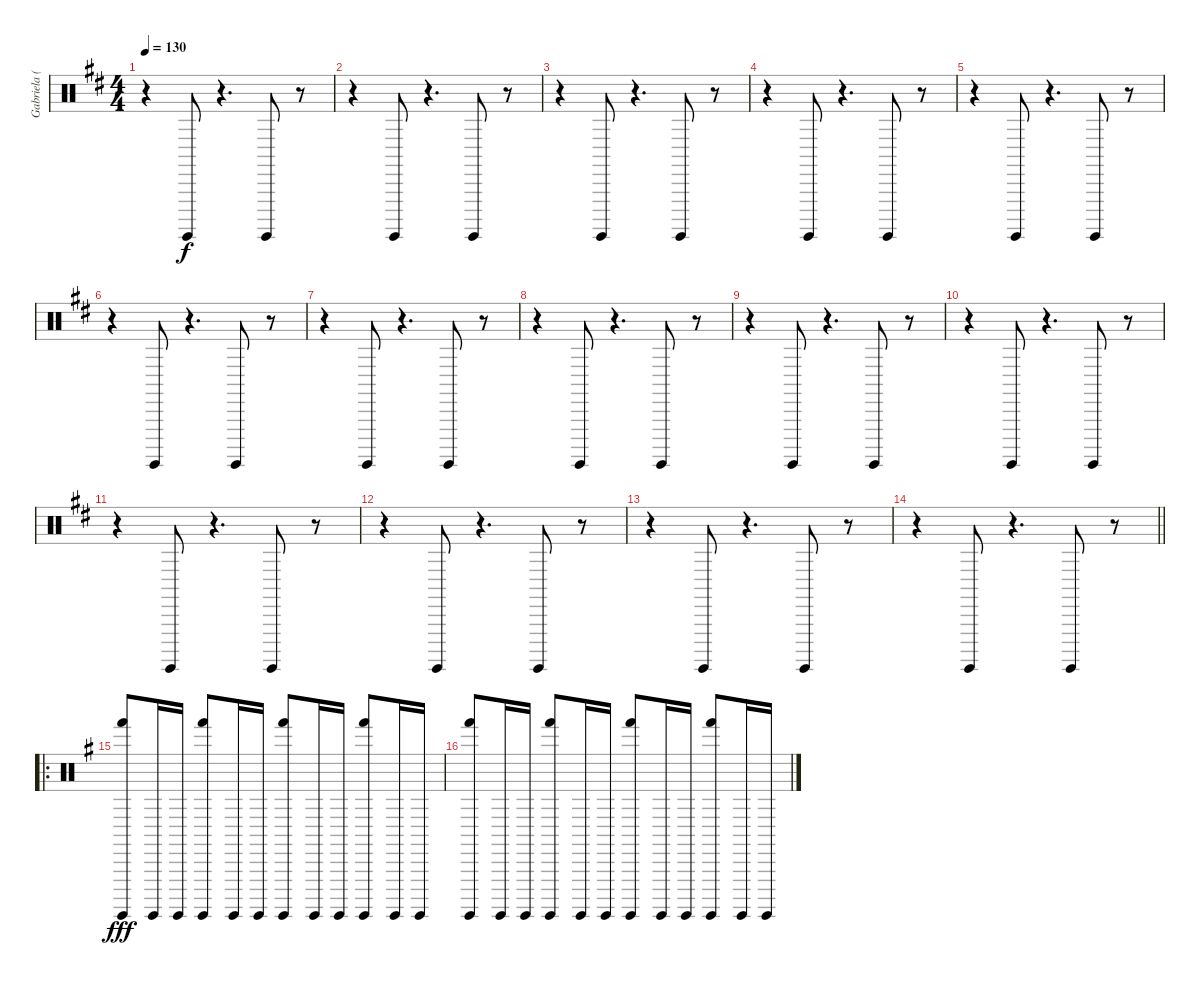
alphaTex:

\track ("Gabriela (Percussion)" "Gabriela (") {instrument percussion}
\staff {score}
\articulation defaults
\ts (4 4)
\tempo 130
\clef neutral
\ks bminor
r.4{dy f} "Surdo (hit)".8 r.4{d} "Surdo (hit)".8 r.8 |
r.4 "Surdo (hit)".8 r.4{d} "Surdo (hit)".8 r.8 |
r.4 "Surdo (hit)".8 r.4{d} "Surdo (hit)".8 r.8 |
r.4 "Surdo (hit)".8 r.4{d} "Surdo (hit)".8 r.8 |
r.4 "Surdo (hit)".8 r.4{d} "Surdo (hit)".8 r.8 |
r.4 "Surdo (hit)".8 r.4{d} "Surdo (hit)".8 r.8 |
r.4 "Surdo (hit)".8 r.4{d} "Surdo (hit)".8 r.8 |
r.4 "Surdo (hit)".8 r.4{d} "Surdo (hit)".8 r.8 |
r.4 "Surdo (hit)".8 r.4{d} "Surdo (hit)".8 r.8 |
r.4 "Surdo (hit)".8 r.4{d} "Surdo (hit)".8 r.8 |
r.4 "Surdo (hit)".8 r.4{d} "Surdo (hit)".8 r.8 |
r.4 "Surdo (hit)".8 r.4{d} "Surdo (hit)".8 r.8 |
r.4 "Surdo (hit)".8 r.4{d} "Surdo (hit)".8 r.8 |
\barLineRight lightlight
r.4 "Surdo (hit)".8 r.4{d} "Surdo (hit)".8 r.8 |
\ro
\ks eminor
("Hand (hit)" "Surdo (hit)").8{dy fff} "Surdo (hit)".16 "Surdo (hit)".16 ("Hand (hit)" "Surdo (hit)").8 "Surdo (hit)".16 "Surdo (hit)".16 ("Hand (hit)" "Surdo (hit)").8 "Surdo (hit)".16 "Surdo (hit)".16 ("Hand (hit)" "Surdo (hit)").8 "Surdo (hit)".16 "Surdo (hit)".16 |
("Hand (hit)" "Surdo (hit)").8 "Surdo (hit)".16 "Surdo (hit)".16 ("Hand (hit)" "Surdo (hit)").8 "Surdo (hit)".16 "Surdo (hit)".16 ("Hand (hit)" "Surdo (hit)").8 "Surdo (hit)".16 "Surdo (hit)".16 ("Hand (hit)" "Surdo (hit)").8 "Surdo (hit)".16 "Surdo (hit)".16
